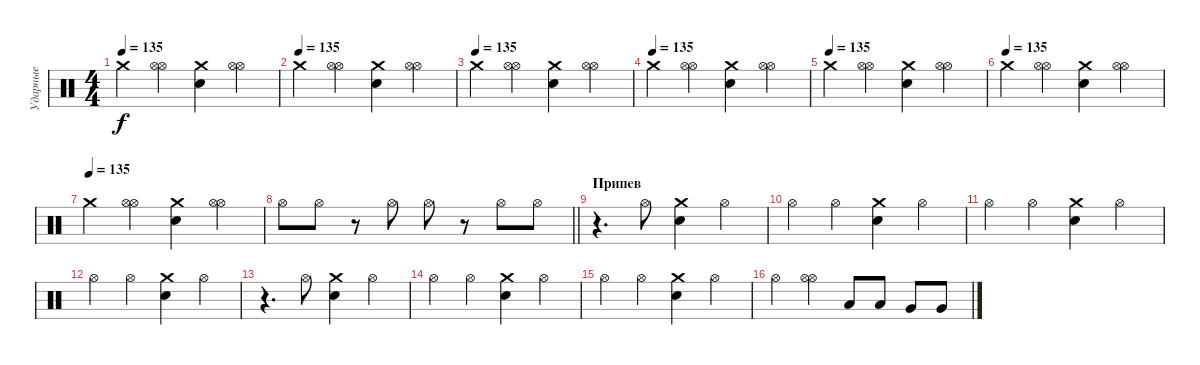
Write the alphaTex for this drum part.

\track ("Ударные" "Ударные") {instrument percussion}
\staff {score}
\articulation defaults
\ts (4 4)
\tempo 135
\clef neutral
\ks c "Crash medium (hit)".4{dy f}
("Hi-Hat (open)" "Hi-Hat (open)").4 ("Crash medium (hit)" "Electric Snare (hit)").4 ("Hi-Hat (open)" "Hi-Hat (open)").4 |
\tempo (135)
"Crash medium (hit)".4 ("Hi-Hat (open)" "Hi-Hat (open)").4 ("Crash medium (hit)" "Electric Snare (hit)").4 ("Hi-Hat (open)" "Hi-Hat (open)").4 |
\tempo (135)
"Crash medium (hit)".4 ("Hi-Hat (open)" "Hi-Hat (open)").4 ("Crash medium (hit)" "Electric Snare (hit)").4 ("Hi-Hat (open)" "Hi-Hat (open)").4 |
\tempo (135)
"Crash medium (hit)".4 ("Hi-Hat (open)" "Hi-Hat (open)").4 ("Crash medium (hit)" "Electric Snare (hit)").4 ("Hi-Hat (open)" "Hi-Hat (open)").4 |
\tempo (135)
"Crash medium (hit)".4 ("Hi-Hat (open)" "Hi-Hat (open)").4 ("Crash medium (hit)" "Electric Snare (hit)").4 ("Hi-Hat (open)" "Hi-Hat (open)").4 |
\tempo (135)
"Crash medium (hit)".4 ("Hi-Hat (open)" "Hi-Hat (open)").4 ("Crash medium (hit)" "Electric Snare (hit)").4 ("Hi-Hat (open)" "Hi-Hat (open)").4 |
\tempo (135)
"Crash medium (hit)".4 ("Hi-Hat (open)" "Hi-Hat (open)").4 ("Crash medium (hit)" "Electric Snare (hit)").4 ("Hi-Hat (open)" "Hi-Hat (open)").4 |
\barLineRight lightlight "Hi-Hat (open)".8 "Hi-Hat (open)".8
r.8 "Hi-Hat (open)".8 "Hi-Hat (open)".8 r.8 "Hi-Hat (open)".8 "Hi-Hat (open)".8 |
\section ("" "Припев")
r.4{d} "Hi-Hat (open)".8 ("Crash medium (hit)" "Electric Snare (hit)").4 "Hi-Hat (open)".4 |
"Hi-Hat (open)".4 "Hi-Hat (open)".4 ("Crash medium (hit)" "Electric Snare (hit)").4 "Hi-Hat (open)".4 |
"Hi-Hat (open)".4 "Hi-Hat (open)".4 ("Crash medium (hit)" "Electric Snare (hit)").4 "Hi-Hat (open)".4 |
"Hi-Hat (open)".4 "Hi-Hat (open)".4 ("Crash medium (hit)" "Electric Snare (hit)").4 "Hi-Hat (open)".4 |
r.4{d} "Hi-Hat (open)".8 ("Crash medium (hit)" "Electric Snare (hit)").4 "Hi-Hat (open)".4 |
"Hi-Hat (open)".4 "Hi-Hat (open)".4 ("Crash medium (hit)" "Electric Snare (hit)").4 "Hi-Hat (open)".4 |
"Hi-Hat (open)".4 "Hi-Hat (open)".4 ("Crash medium (hit)" "Electric Snare (hit)").4 "Hi-Hat (open)".4 |
"Hi-Hat (open)".4 ("Hi-Hat (open)" "Hi-Hat (open)").4 "Low Tom (hit)".8 "Low Tom (hit)".8 "Very Low Tom (hit)".8 "Very Low Tom (hit)".8
